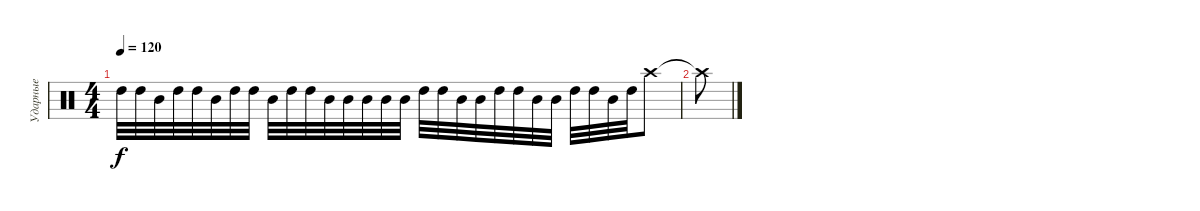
\track ("Ударные" "Ударные") {instrument percussion}
\staff
\articulation defaults
\ts (4 4)
\tempo 120
\clef neutral
\ks c "High Tom (hit)".32{dy f} "High Tom (hit)".32 "Mid Tom (hit)".32 "High Tom (hit)".32 "High Tom (hit)".32 "Mid Tom (hit)".32 "High Tom (hit)".32 "High Tom (hit)".32 "Mid Tom (hit)".32 "High Tom (hit)".32 "High Tom (hit)".32 "Mid Tom (hit)".32 "Mid Tom (hit)".32 "Mid Tom (hit)".32 "Mid Tom (hit)".32 "Mid Tom (hit)".32 "High Tom (hit)".32 "High Tom (hit)".32 "Mid Tom (hit)".32 "Mid Tom (hit)".32 "High Tom (hit)".32 "High Tom (hit)".32 "Mid Tom (hit)".32 "Mid Tom (hit)".32 "High Tom (hit)".32 "High Tom (hit)".32 "Mid Tom (hit)".32 "High Tom (hit)".32 "Crash high (hit)".8
|
"Crash high (hit)"{t}.8
